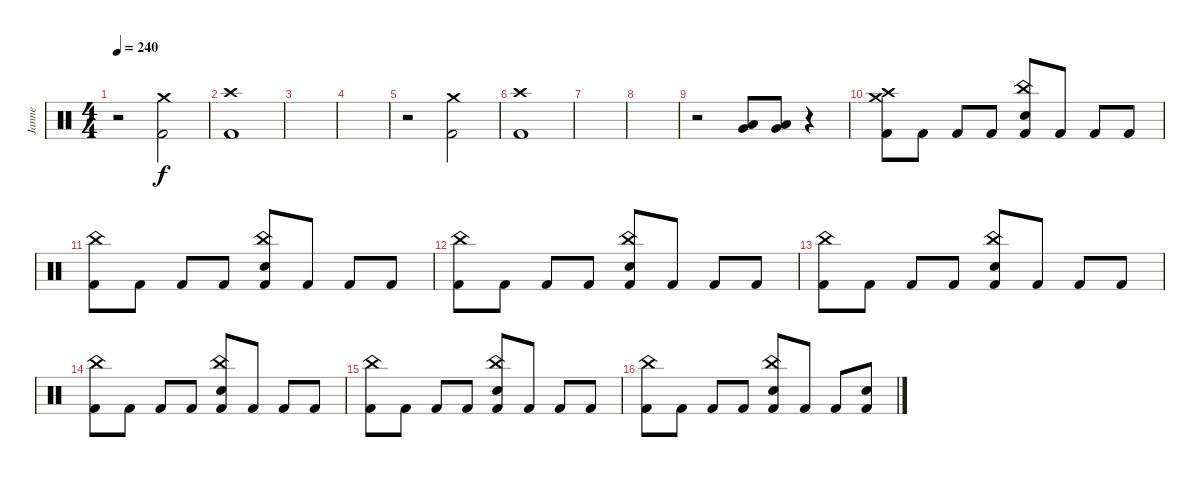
\track ("Janne" "Janne") {instrument percussion}
\staff {score}
\articulation defaults
\ts (4 4)
\tempo 240
\clef neutral
\ks c
r.2{dy f} ("Crash medium (hit)" "Kick (hit) 2").2 |
("Crash high (hit)" "Kick (hit) 2").1 |
|
|
r.2 ("Crash medium (hit)" "Kick (hit) 2").2 |
("Crash high (hit)" "Kick (hit) 2").1 |
|
|
r.2 ("Low Floor Tom (hit)" "Very Low Tom (hit)").8 ("Low Floor Tom (hit)" "Very Low Tom (hit)").8 r.4 |
("Crash high (hit)" "Crash medium (hit)" "Kick (hit) 2").8 "Kick (hit) 2".8 "Kick (hit) 2".8 "Kick (hit) 2".8 ("China (hit)" "Electric Snare (hit)" "Kick (hit) 2").8 "Kick (hit) 2".8 "Kick (hit) 2".8 "Kick (hit) 2".8 |
("China (hit)" "Kick (hit) 2").8 "Kick (hit) 2".8 "Kick (hit) 2".8 "Kick (hit) 2".8 ("China (hit)" "Electric Snare (hit)" "Kick (hit) 2").8 "Kick (hit) 2".8 "Kick (hit) 2".8 "Kick (hit) 2".8 |
("China (hit)" "Kick (hit) 2").8 "Kick (hit) 2".8 "Kick (hit) 2".8 "Kick (hit) 2".8 ("China (hit)" "Electric Snare (hit)" "Kick (hit) 2").8 "Kick (hit) 2".8 "Kick (hit) 2".8 "Kick (hit) 2".8 |
("China (hit)" "Kick (hit) 2").8 "Kick (hit) 2".8 "Kick (hit) 2".8 "Kick (hit) 2".8 ("China (hit)" "Electric Snare (hit)" "Kick (hit) 2").8 "Kick (hit) 2".8 "Kick (hit) 2".8 "Kick (hit) 2".8 |
("China (hit)" "Kick (hit) 2").8 "Kick (hit) 2".8 "Kick (hit) 2".8 "Kick (hit) 2".8 ("China (hit)" "Electric Snare (hit)" "Kick (hit) 2").8 "Kick (hit) 2".8 "Kick (hit) 2".8 "Kick (hit) 2".8 |
("China (hit)" "Kick (hit) 2").8 "Kick (hit) 2".8 "Kick (hit) 2".8 "Kick (hit) 2".8 ("China (hit)" "Electric Snare (hit)" "Kick (hit) 2").8 "Kick (hit) 2".8 "Kick (hit) 2".8 "Kick (hit) 2".8 |
("China (hit)" "Kick (hit) 2").8 "Kick (hit) 2".8 "Kick (hit) 2".8 "Kick (hit) 2".8 ("China (hit)" "Electric Snare (hit)" "Kick (hit) 2").8 "Kick (hit) 2".8 "Kick (hit) 2".8 ("Electric Snare (hit)" "Kick (hit) 2").8
